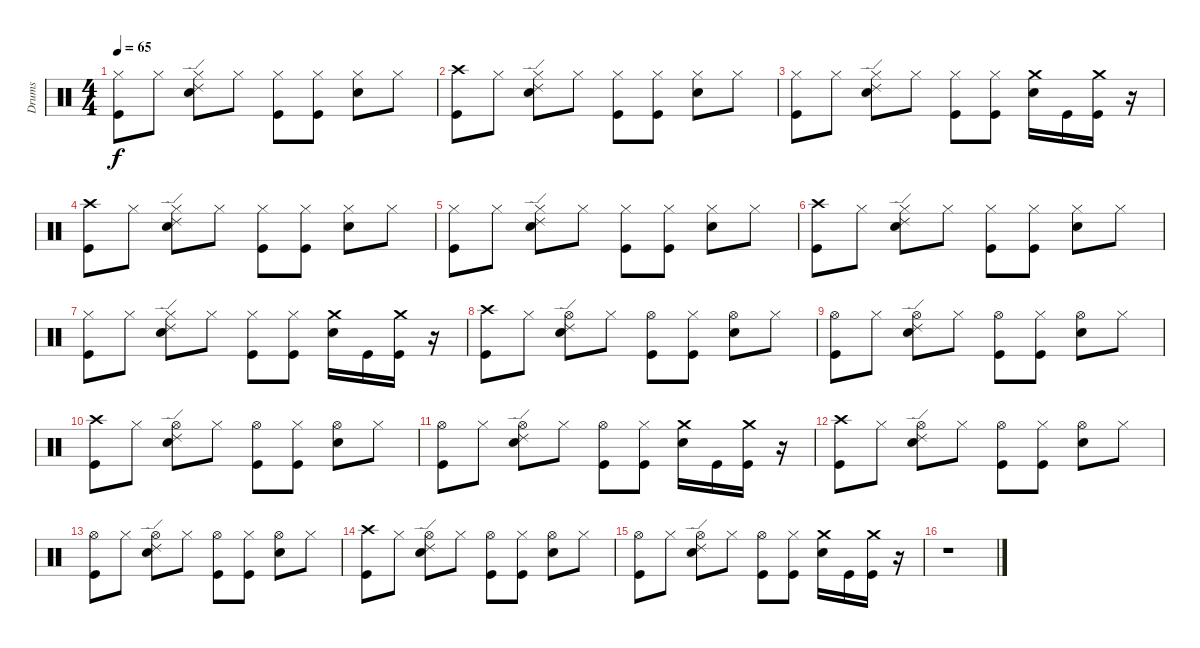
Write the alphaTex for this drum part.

\track ("Drums" "Drums") {instrument percussion}
\staff {score}
\articulation defaults
\ts (4 4)
\tempo 65
\clef neutral
\ks c
("Hi-Hat (closed)" "Kick (hit)").8{dy f} "Hi-Hat (closed)".8 ("Hi-Hat (closed)" "Ride (edge) 2" "Snare (hit) 2").8 "Hi-Hat (closed)".8 ("Hi-Hat (closed)" "Kick (hit)").8 ("Hi-Hat (closed)" "Kick (hit)").8 ("Hi-Hat (closed)" "Snare (hit) 2").8 "Hi-Hat (closed)".8 |
("Crash high (hit)" "Kick (hit)").8 "Hi-Hat (closed)".8 ("Hi-Hat (closed)" "Ride (edge) 2" "Snare (hit) 2").8 "Hi-Hat (closed)".8 ("Hi-Hat (closed)" "Kick (hit)").8 ("Hi-Hat (closed)" "Kick (hit)").8 ("Hi-Hat (closed)" "Snare (hit) 2").8 "Hi-Hat (closed)".8 |
("Hi-Hat (closed)" "Kick (hit)").8 "Hi-Hat (closed)".8 ("Hi-Hat (closed)" "Ride (edge) 2" "Snare (hit) 2").8 "Hi-Hat (closed)".8 ("Hi-Hat (closed)" "Kick (hit)").8 ("Hi-Hat (closed)" "Kick (hit)").8 ("Crash medium (hit)" "Snare (hit) 2").16 "Kick (hit)".16 ("Crash medium (hit)" "Kick (hit)").16 r.16 |
("Crash high (hit)" "Kick (hit)").8 "Hi-Hat (closed)".8 ("Hi-Hat (closed)" "Ride (edge) 2" "Snare (hit) 2").8 "Hi-Hat (closed)".8 ("Hi-Hat (closed)" "Kick (hit)").8 ("Hi-Hat (closed)" "Kick (hit)").8 ("Hi-Hat (closed)" "Snare (hit) 2").8 "Hi-Hat (closed)".8 |
("Hi-Hat (closed)" "Kick (hit)").8 "Hi-Hat (closed)".8 ("Hi-Hat (closed)" "Ride (edge) 2" "Snare (hit) 2").8 "Hi-Hat (closed)".8 ("Hi-Hat (closed)" "Kick (hit)").8 ("Hi-Hat (closed)" "Kick (hit)").8 ("Hi-Hat (closed)" "Snare (hit) 2").8 "Hi-Hat (closed)".8 |
("Crash high (hit)" "Kick (hit)").8 "Hi-Hat (closed)".8 ("Hi-Hat (closed)" "Ride (edge) 2" "Snare (hit) 2").8 "Hi-Hat (closed)".8 ("Hi-Hat (closed)" "Kick (hit)").8 ("Hi-Hat (closed)" "Kick (hit)").8 ("Hi-Hat (closed)" "Snare (hit) 2").8 "Hi-Hat (closed)".8 |
("Hi-Hat (closed)" "Kick (hit)").8 "Hi-Hat (closed)".8 ("Hi-Hat (closed)" "Ride (edge) 2" "Snare (hit) 2").8 "Hi-Hat (closed)".8 ("Hi-Hat (closed)" "Kick (hit)").8 ("Hi-Hat (closed)" "Kick (hit)").8 ("Crash medium (hit)" "Snare (hit) 2").16 "Kick (hit)".16 ("Crash medium (hit)" "Kick (hit)").16 r.16 |
("Crash high (hit)" "Kick (hit)").8 "Hi-Hat (closed)".8 ("Hi-Hat (open)" "Ride (edge) 2" "Snare (hit) 2").8 "Hi-Hat (closed)".8 ("Hi-Hat (open)" "Kick (hit)").8 ("Hi-Hat (closed)" "Kick (hit)").8 ("Hi-Hat (open)" "Snare (hit) 2").8 "Hi-Hat (closed)".8 |
("Hi-Hat (open)" "Kick (hit)").8 "Hi-Hat (closed)".8 ("Hi-Hat (open)" "Ride (edge) 2" "Snare (hit) 2").8 "Hi-Hat (closed)".8 ("Hi-Hat (open)" "Kick (hit)").8 ("Hi-Hat (closed)" "Kick (hit)").8 ("Hi-Hat (open)" "Snare (hit) 2").8 "Hi-Hat (closed)".8 |
("Crash high (hit)" "Kick (hit)").8 "Hi-Hat (closed)".8 ("Hi-Hat (open)" "Ride (edge) 2" "Snare (hit) 2").8 "Hi-Hat (closed)".8 ("Hi-Hat (open)" "Kick (hit)").8 ("Hi-Hat (closed)" "Kick (hit)").8 ("Hi-Hat (open)" "Snare (hit) 2").8 "Hi-Hat (closed)".8 |
("Hi-Hat (open)" "Kick (hit)").8 "Hi-Hat (closed)".8 ("Hi-Hat (open)" "Ride (edge) 2" "Snare (hit) 2").8 "Hi-Hat (closed)".8 ("Hi-Hat (open)" "Kick (hit)").8 ("Hi-Hat (closed)" "Kick (hit)").8 ("Crash medium (hit)" "Snare (hit) 2").16 "Kick (hit)".16 ("Crash medium (hit)" "Kick (hit)").16 r.16 |
("Crash high (hit)" "Kick (hit)").8 "Hi-Hat (closed)".8 ("Hi-Hat (open)" "Ride (edge) 2" "Snare (hit) 2").8 "Hi-Hat (closed)".8 ("Hi-Hat (open)" "Kick (hit)").8 ("Hi-Hat (closed)" "Kick (hit)").8 ("Hi-Hat (open)" "Snare (hit) 2").8 "Hi-Hat (closed)".8 |
("Hi-Hat (open)" "Kick (hit)").8 "Hi-Hat (closed)".8 ("Hi-Hat (open)" "Ride (edge) 2" "Snare (hit) 2").8 "Hi-Hat (closed)".8 ("Hi-Hat (open)" "Kick (hit)").8 ("Hi-Hat (closed)" "Kick (hit)").8 ("Hi-Hat (open)" "Snare (hit) 2").8 "Hi-Hat (closed)".8 |
("Crash high (hit)" "Kick (hit)").8 "Hi-Hat (closed)".8 ("Hi-Hat (open)" "Ride (edge) 2" "Snare (hit) 2").8 "Hi-Hat (closed)".8 ("Hi-Hat (open)" "Kick (hit)").8 ("Hi-Hat (closed)" "Kick (hit)").8 ("Hi-Hat (open)" "Snare (hit) 2").8 "Hi-Hat (closed)".8 |
("Hi-Hat (open)" "Kick (hit)").8 "Hi-Hat (closed)".8 ("Hi-Hat (open)" "Ride (edge) 2" "Snare (hit) 2").8 "Hi-Hat (closed)".8 ("Hi-Hat (open)" "Kick (hit)").8 ("Hi-Hat (closed)" "Kick (hit)").8 ("Crash medium (hit)" "Snare (hit) 2").16 "Kick (hit)".16 ("Crash medium (hit)" "Kick (hit)").16 r.16 |
r.1
